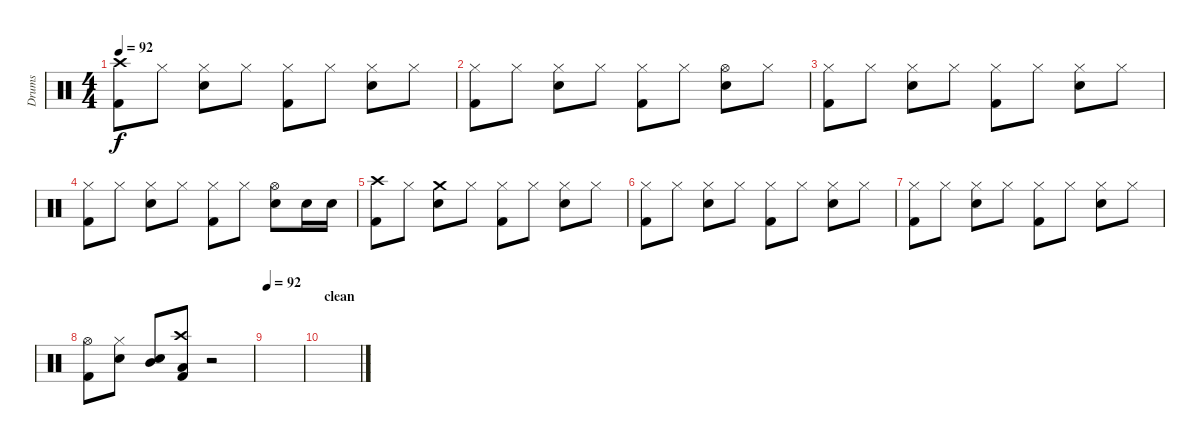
\track ("Drums" "Drums") {instrument percussion}
\staff {score}
\articulation defaults
\ts (4 4)
\tempo 92
\clef neutral
\ks c
("Kick (hit) 2" "Crash high (hit)").8{dy f} "Hi-Hat (closed)".8 ("Hi-Hat (closed)" "Snare (hit) 2").8 "Hi-Hat (closed)".8 ("Hi-Hat (closed)" "Kick (hit) 2").8 "Hi-Hat (closed)".8 ("Hi-Hat (closed)" "Snare (hit) 2").8 "Hi-Hat (closed)".8 |
("Hi-Hat (closed)" "Kick (hit) 2").8 "Hi-Hat (closed)".8 ("Hi-Hat (closed)" "Snare (hit) 2").8 "Hi-Hat (closed)".8 ("Hi-Hat (closed)" "Kick (hit) 2").8 "Hi-Hat (closed)".8 ("Hi-Hat (open)" "Snare (hit) 2").8 "Hi-Hat (closed)".8 |
("Hi-Hat (closed)" "Kick (hit) 2").8 "Hi-Hat (closed)".8 ("Hi-Hat (closed)" "Snare (hit) 2").8 "Hi-Hat (closed)".8 ("Hi-Hat (closed)" "Kick (hit) 2").8 "Hi-Hat (closed)".8 ("Hi-Hat (closed)" "Snare (hit) 2").8 "Hi-Hat (closed)".8 |
("Hi-Hat (closed)" "Kick (hit) 2").8 "Hi-Hat (closed)".8 ("Hi-Hat (closed)" "Snare (hit) 2").8 "Hi-Hat (closed)".8 ("Hi-Hat (closed)" "Kick (hit) 2").8 "Hi-Hat (closed)".8 ("Hi-Hat (open)" "Snare (hit) 2").8 "Snare (hit) 2".16 "Snare (hit) 2".16 |
("Kick (hit) 2" "Crash high (hit)").8 "Hi-Hat (closed)".8 ("Snare (hit) 2" "Crash medium (hit)").8 "Hi-Hat (closed)".8 ("Hi-Hat (closed)" "Kick (hit) 2").8 "Hi-Hat (closed)".8 ("Hi-Hat (closed)" "Snare (hit) 2").8 "Hi-Hat (closed)".8 |
("Hi-Hat (closed)" "Kick (hit) 2").8 "Hi-Hat (closed)".8 ("Hi-Hat (closed)" "Snare (hit) 2").8 "Hi-Hat (closed)".8 ("Hi-Hat (closed)" "Kick (hit) 2").8 "Hi-Hat (closed)".8 ("Hi-Hat (closed)" "Snare (hit) 2").8 "Hi-Hat (closed)".8 |
("Hi-Hat (closed)" "Kick (hit) 2").8 "Hi-Hat (closed)".8 ("Hi-Hat (closed)" "Snare (hit) 2").8 "Hi-Hat (closed)".8 ("Hi-Hat (closed)" "Kick (hit) 2").8 "Hi-Hat (closed)".8 ("Hi-Hat (closed)" "Snare (hit) 2").8 "Hi-Hat (closed)".8 |
("Hi-Hat (open)" "Kick (hit) 2").8 ("Hi-Hat (closed)" "Snare (hit) 2").8 ("Mid Tom (hit)" "Snare (hit) 2").8 ("Low Floor Tom (hit)" "Kick (hit) 2" "Crash high (hit)").8 r.2 |
\tempo 92
|
\section ("" "clean")
